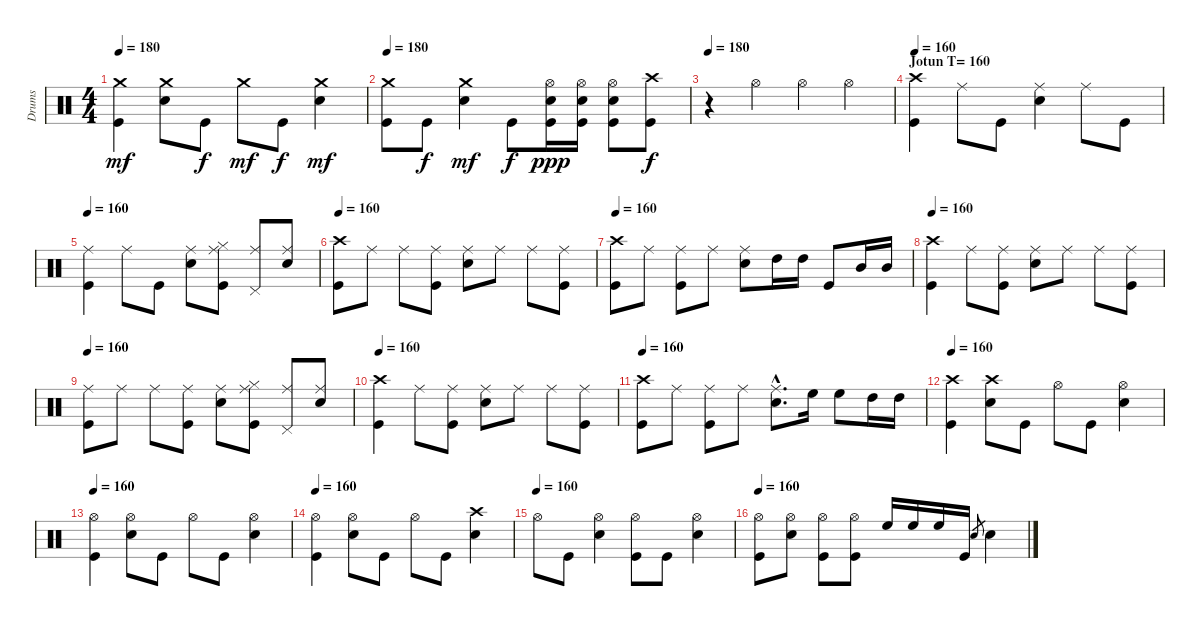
\track ("Drums" "Drums") {instrument percussion}
\staff {score}
\articulation defaults
\ts (4 4)
\tempo 180
\clef neutral
\ks c
("Kick (hit)" "Crash medium (hit)").4{dy mf} ("Electric Snare (hit)" "Crash medium (hit)").8 "Kick (hit)".8{dy f} "Crash medium (hit)".8{dy mf} "Kick (hit)".8{dy f} ("Electric Snare (hit)" "Crash medium (hit)").4{dy mf} |
\tempo 180
("Kick (hit)" "Crash medium (hit)").8 "Kick (hit)".8{dy f} ("Electric Snare (hit)" "Crash medium (hit)").4{dy mf} "Kick (hit)".8{dy f} ("Kick (hit)" "Electric Snare (hit)" "Hi-Hat (open)").16{dy ppp} ("Kick (hit)" "Electric Snare (hit)" "Hi-Hat (open)").16 ("Kick (hit)" "Electric Snare (hit)" "Hi-Hat (open)").8 ("Kick (hit)" "Crash high (hit)").8{dy f} |
\tempo 180
r.4 "Hi-Hat (open)".4 "Hi-Hat (open)".4 "Hi-Hat (open)".4 |
\section ("" "Jotun T= 160")
\tempo 160
("Crash high (hit)" "Kick (hit)").4 "Ride (middle)".8 "Kick (hit)".8 ("Ride (middle)" "Electric Snare (hit)").4 "Ride (middle)".8 "Kick (hit)".8 |
\tempo 160
("Ride (middle)" "Kick (hit)").4 "Ride (middle)".8 "Kick (hit)".8 ("Ride (middle)" "Electric Snare (hit)").8 ("Ride (middle)" "Hi-Hat (closed)" "Kick (hit)").8 ("Ride (middle)" "Pedal Hi-Hat (hit)").8 ("Ride (middle)" "Electric Snare (hit)").8 |
\tempo 160
("Crash high (hit)" "Kick (hit)").8 "Ride (middle)".8 "Ride (middle)".8 ("Ride (middle)" "Kick (hit)").8 ("Ride (middle)" "Electric Snare (hit)").8 "Ride (middle)".8 "Ride (middle)".8 ("Ride (middle)" "Kick (hit)").8 |
\tempo 160
("Crash high (hit)" "Kick (hit)").8 "Ride (middle)".8 ("Ride (middle)" "Kick (hit)").8 "Ride (middle)".8 ("Ride (middle)" "Electric Snare (hit)").8 "High Tom (hit)".16 "High Tom (hit)".16 "Kick (hit)".8 "Mid Tom (hit)".16 "Mid Tom (hit)".16 |
\tempo 160
("Crash high (hit)" "Kick (hit)").4 "Ride (middle)".8 ("Ride (middle)" "Kick (hit)").8 ("Ride (middle)" "Electric Snare (hit)").8 "Ride (middle)".8 "Ride (middle)".8 ("Ride (middle)" "Kick (hit)").8 |
\tempo 160
("Ride (middle)" "Kick (hit)").8 "Ride (middle)".8 "Ride (middle)".8 ("Ride (middle)" "Kick (hit)").8 ("Ride (middle)" "Electric Snare (hit)").8 ("Ride (middle)" "Hi-Hat (closed)" "Kick (hit)").8 ("Ride (middle)" "Pedal Hi-Hat (hit)").8 ("Ride (middle)" "Electric Snare (hit)").8 |
\tempo 160
("Crash high (hit)" "Kick (hit)").4 "Ride (middle)".8 ("Ride (middle)" "Kick (hit)").8 ("Ride (middle)" "Electric Snare (hit)").8 "Ride (middle)".8 "Ride (middle)".8 ("Ride (middle)" "Kick (hit)").8 |
\tempo 160
("Crash high (hit)" "Kick (hit)").8 "Ride (middle)".8 ("Ride (middle)" "Kick (hit)").8 "Ride (middle)".8 ("Ride (middle)"{hac} "Electric Snare (hit)"{hac}).8{d} "High Floor Tom (hit)".16 "High Floor Tom (hit)".8 "High Tom (hit)".16 "High Tom (hit)".16 |
\tempo 160
("Crash high (hit)" "Kick (hit)").4 ("Crash high (hit)" "Electric Snare (hit)").8 "Kick (hit)".8 "Hi-Hat (open)".8 "Kick (hit)".8 ("Hi-Hat (open)" "Electric Snare (hit)").4 |
\tempo 160
("Hi-Hat (open)" "Kick (hit)").4 ("Hi-Hat (open)" "Electric Snare (hit)").8 "Kick (hit)".8 "Hi-Hat (open)".8 "Kick (hit)".8 ("Hi-Hat (open)" "Electric Snare (hit)").4 |
\tempo 160
("Hi-Hat (open)" "Kick (hit)").4 ("Hi-Hat (open)" "Electric Snare (hit)").8 "Kick (hit)".8 "Hi-Hat (open)".8 "Kick (hit)".8 ("Crash high (hit)" "Electric Snare (hit)").4 |
\tempo (160)
"Hi-Hat (open)".8 "Kick (hit)".8 ("Hi-Hat (open)" "Electric Snare (hit)").4 ("Hi-Hat (open)" "Kick (hit)").8 "Kick (hit)".8 ("Hi-Hat (open)" "Electric Snare (hit)").4 |
\tempo 160
("Hi-Hat (open)" "Kick (hit)").8 ("Hi-Hat (open)" "Electric Snare (hit)").8 ("Hi-Hat (open)" "Kick (hit)").8 ("Hi-Hat (open)" "Kick (hit)").8 "High Floor Tom (hit)".16 "High Floor Tom (hit)".16 "High Floor Tom (hit)".16 "Kick (hit)".16 "Electric Snare (hit)".8{gr} "Electric Snare (hit)".4
